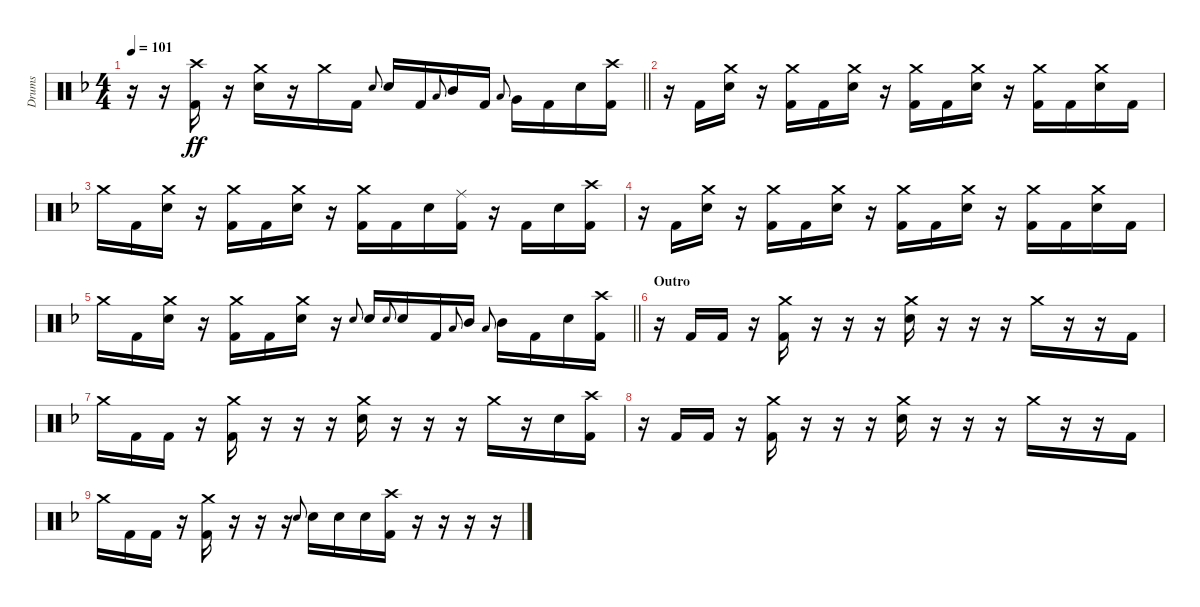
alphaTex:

\track ("Drums" "Drums") {instrument percussion}
\staff {score}
\articulation defaults
\ts (4 4)
\tempo 101
\clef neutral
\barLineRight lightlight
\ks dminor
r.16{dy ff} r.16 ("Crash high (hit)" "Kick (hit) 2").16 r.16 ("Crash medium (hit)" "Electric Snare (hit)").16 r.16 "Crash medium (hit)".16 "Kick (hit) 2".16 "Electric Snare (hit)".8{gr onbeat} "Electric Snare (hit)".16 "Kick (hit) 2".16 "Low Tom (hit)".8{gr onbeat} "Mid Tom (hit)".16 "Kick (hit) 2".16 "Low Floor Tom (hit)".8{gr onbeat} "Very Low Tom (hit)".16 "Kick (hit) 2".16 "Electric Snare (hit)".16 ("Crash high (hit)" "Kick (hit) 2").16 |
r.16 "Kick (hit) 2".16 ("Crash medium (hit)" "Electric Snare (hit)").16 r.16 ("Crash medium (hit)" "Kick (hit) 2").16 "Kick (hit) 2".16 ("Crash medium (hit)" "Electric Snare (hit)").16 r.16 ("Crash medium (hit)" "Kick (hit) 2").16 "Kick (hit) 2".16 ("Crash medium (hit)" "Electric Snare (hit)").16 r.16 ("Crash medium (hit)" "Kick (hit) 2").16 "Kick (hit) 2".16 ("Crash medium (hit)" "Electric Snare (hit)").16 "Kick (hit) 2".16 |
"Crash medium (hit)".16 "Kick (hit) 2".16 ("Crash medium (hit)" "Electric Snare (hit)").16 r.16 ("Crash medium (hit)" "Kick (hit) 2").16 "Kick (hit) 2".16 ("Crash medium (hit)" "Electric Snare (hit)").16 r.16 ("Crash medium (hit)" "Kick (hit) 2").16 "Kick (hit) 2".16 "Electric Snare (hit)".16 ("Ride (middle)" "Kick (hit) 2").16 r.16 "Kick (hit) 2".16 "Electric Snare (hit)".16 ("Crash high (hit)" "Kick (hit) 2").16 |
r.16 "Kick (hit) 2".16 ("Crash medium (hit)" "Electric Snare (hit)").16 r.16 ("Crash medium (hit)" "Kick (hit) 2").16 "Kick (hit) 2".16 ("Crash medium (hit)" "Electric Snare (hit)").16 r.16 ("Crash medium (hit)" "Kick (hit) 2").16 "Kick (hit) 2".16 ("Crash medium (hit)" "Electric Snare (hit)").16 r.16 ("Crash medium (hit)" "Kick (hit) 2").16 "Kick (hit) 2".16 ("Crash medium (hit)" "Electric Snare (hit)").16 "Kick (hit) 2".16 |
\barLineRight lightlight "Crash medium (hit)".16 "Kick (hit) 2".16
("Crash medium (hit)" "Electric Snare (hit)").16 r.16 ("Crash medium (hit)" "Kick (hit) 2").16 "Kick (hit) 2".16 ("Crash medium (hit)" "Electric Snare (hit)").16 r.16 "Electric Snare (hit)".8{gr onbeat} "Electric Snare (hit)".16 "Electric Snare (hit)".8{gr onbeat} "Electric Snare (hit)".16 "Kick (hit) 2".16 "Low Tom (hit)".8{gr onbeat} "Mid Tom (hit)".16 "Low Tom (hit)".8{gr onbeat} "Mid Tom (hit)".16 "Kick (hit) 2".16 "Electric Snare (hit)".16 ("Crash high (hit)" "Kick (hit) 2").16 |
\section ("" "Outro")
r.16 "Kick (hit) 2".16 "Kick (hit) 2".16 r.16 ("Crash medium (hit)" "Kick (hit) 2").16 r.16 r.16 r.16 ("Crash medium (hit)" "Electric Snare (hit)").16 r.16 r.16 r.16 "Crash medium (hit)".16 r.16 r.16 "Kick (hit) 2".16 |
"Crash medium (hit)".16 "Kick (hit) 2".16 "Kick (hit) 2".16 r.16 ("Crash medium (hit)" "Kick (hit) 2").16 r.16 r.16 r.16 ("Crash medium (hit)" "Electric Snare (hit)").16 r.16 r.16 r.16 "Crash medium (hit)".16 r.16 "Electric Snare (hit)".16 ("Crash high (hit)" "Kick (hit) 2").16 |
r.16 "Kick (hit) 2".16 "Kick (hit) 2".16 r.16 ("Crash medium (hit)" "Kick (hit) 2").16 r.16 r.16 r.16 ("Crash medium (hit)" "Electric Snare (hit)").16 r.16 r.16 r.16 "Crash medium (hit)".16 r.16 r.16 "Kick (hit) 2".16 |
"Crash medium (hit)".16 "Kick (hit) 2".16 "Kick (hit) 2".16 r.16 ("Crash medium (hit)" "Kick (hit) 2").16 r.16 r.16 r.16 "Electric Snare (hit)".8{gr onbeat} "Electric Snare (hit)".16 "Electric Snare (hit)".16 "Electric Snare (hit)".16 ("Crash high (hit)" "Kick (hit) 2").16 r.16 r.16 r.16 r.16
